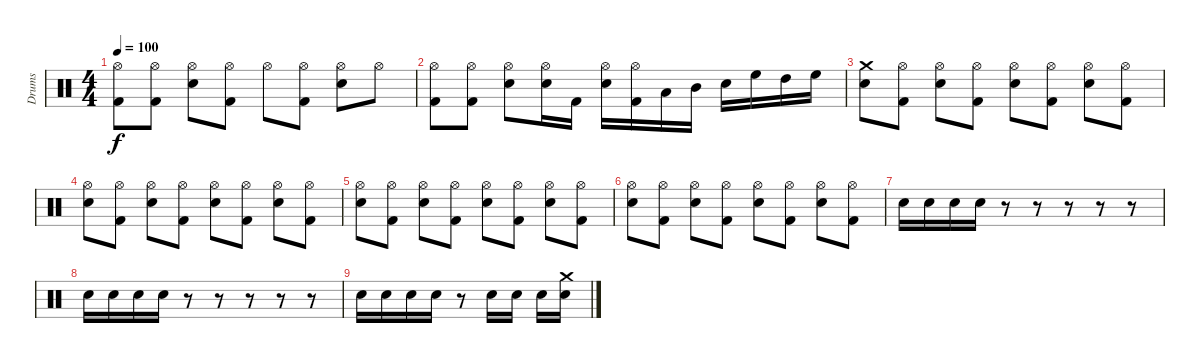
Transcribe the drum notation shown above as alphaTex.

\track ("Drums" "Drums") {instrument percussion}
\staff {score}
\articulation defaults
\ts (4 4)
\tempo 100
\clef neutral
\ks c
("Hi-Hat (open)" "Kick (hit) 2").8{dy f} ("Hi-Hat (open)" "Kick (hit) 2").8 ("Hi-Hat (open)" "Electric Snare (hit)").8 ("Hi-Hat (open)" "Kick (hit) 2").8 "Hi-Hat (open)".8 ("Hi-Hat (open)" "Kick (hit) 2").8 ("Hi-Hat (open)" "Electric Snare (hit)").8 "Hi-Hat (open)".8 |
("Hi-Hat (open)" "Kick (hit) 2").8 ("Hi-Hat (open)" "Kick (hit) 2").8 ("Hi-Hat (open)" "Electric Snare (hit)").8 ("Hi-Hat (open)" "Electric Snare (hit)").16 "Kick (hit) 2".16 ("Hi-Hat (open)" "Electric Snare (hit)").16 ("Hi-Hat (open)" "Kick (hit) 2").16 "Low Tom (hit)".16 "Mid Tom (hit)".16 "Electric Snare (hit)".16 "High Floor Tom (hit)".16 "High Tom (hit)".16 "High Floor Tom (hit)".16 |
("Crash medium (hit)" "Electric Snare (hit)").8 ("Hi-Hat (open)" "Kick (hit) 2").8 ("Hi-Hat (open)" "Electric Snare (hit)").8 ("Hi-Hat (open)" "Kick (hit) 2").8 ("Hi-Hat (open)" "Electric Snare (hit)").8 ("Hi-Hat (open)" "Kick (hit) 2").8 ("Hi-Hat (open)" "Electric Snare (hit)").8 ("Hi-Hat (open)" "Kick (hit) 2").8 |
("Hi-Hat (open)" "Electric Snare (hit)").8 ("Hi-Hat (open)" "Kick (hit) 2").8 ("Hi-Hat (open)" "Electric Snare (hit)").8 ("Hi-Hat (open)" "Kick (hit) 2").8 ("Hi-Hat (open)" "Electric Snare (hit)").8 ("Hi-Hat (open)" "Kick (hit) 2").8 ("Hi-Hat (open)" "Electric Snare (hit)").8 ("Hi-Hat (open)" "Kick (hit) 2").8 |
("Hi-Hat (open)" "Electric Snare (hit)").8 ("Hi-Hat (open)" "Kick (hit) 2").8 ("Hi-Hat (open)" "Electric Snare (hit)").8 ("Hi-Hat (open)" "Kick (hit) 2").8 ("Hi-Hat (open)" "Electric Snare (hit)").8 ("Hi-Hat (open)" "Kick (hit) 2").8 ("Hi-Hat (open)" "Electric Snare (hit)").8 ("Hi-Hat (open)" "Kick (hit) 2").8 |
("Hi-Hat (open)" "Electric Snare (hit)").8 ("Hi-Hat (open)" "Kick (hit) 2").8 ("Hi-Hat (open)" "Electric Snare (hit)").8 ("Hi-Hat (open)" "Kick (hit) 2").8 ("Hi-Hat (open)" "Electric Snare (hit)").8 ("Hi-Hat (open)" "Kick (hit) 2").8 ("Hi-Hat (open)" "Electric Snare (hit)").8 ("Hi-Hat (open)" "Kick (hit) 2").8 |
"Electric Snare (hit)".16 "Electric Snare (hit)".16 "Electric Snare (hit)".16 "Electric Snare (hit)".16 r.8 r.8 r.8 r.8 r.8 |
"Electric Snare (hit)".16 "Electric Snare (hit)".16 "Electric Snare (hit)".16 "Electric Snare (hit)".16 r.8 r.8 r.8 r.8 r.8 |
"Electric Snare (hit)".16 "Electric Snare (hit)".16 "Electric Snare (hit)".16 "Electric Snare (hit)".16 r.8 "Electric Snare (hit)".16 "Electric Snare (hit)".16 "Electric Snare (hit)".16 ("Crash medium (hit)" "Electric Snare (hit)").16
